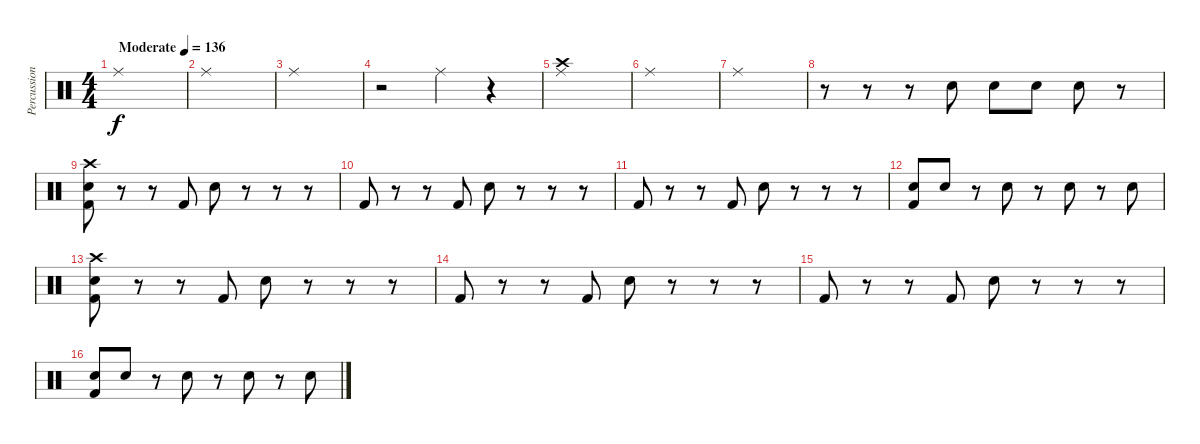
\track ("Percussion" "Percussion") {instrument percussion}
\staff {score}
\articulation defaults
\ts (4 4)
\tempo (136 "Moderate")
\clef neutral
\ks c "Ride (middle)".1{dy f}
|
"Ride (middle)".1 |
"Ride (middle)".1 |
r.2 "Ride (middle)".4 r.4 |
("Ride (middle)" "Crash high (hit)").1 |
"Ride (middle)".1 |
"Ride (middle)".1 |
r.8 r.8 r.8 "Electric Snare (hit)".8 "Electric Snare (hit)".8 "Electric Snare (hit)".8 "Electric Snare (hit)".8 r.8 |
("Crash high (hit)" "Electric Snare (hit)" "Kick (hit) 2").8 r.8 r.8 "Kick (hit) 2".8 "Electric Snare (hit)".8 r.8 r.8 r.8 |
"Kick (hit) 2".8 r.8 r.8 "Kick (hit) 2".8 "Electric Snare (hit)".8 r.8 r.8 r.8 |
"Kick (hit) 2".8 r.8 r.8 "Kick (hit) 2".8 "Electric Snare (hit)".8 r.8 r.8 r.8 |
("Electric Snare (hit)" "Kick (hit) 2").8 "Electric Snare (hit)".8 r.8 "Electric Snare (hit)".8 r.8 "Electric Snare (hit)".8 r.8 "Electric Snare (hit)".8 |
("Crash high (hit)" "Electric Snare (hit)" "Kick (hit) 2").8 r.8 r.8 "Kick (hit) 2".8 "Electric Snare (hit)".8 r.8 r.8 r.8 |
"Kick (hit) 2".8 r.8 r.8 "Kick (hit) 2".8 "Electric Snare (hit)".8 r.8 r.8 r.8 |
"Kick (hit) 2".8 r.8 r.8 "Kick (hit) 2".8 "Electric Snare (hit)".8 r.8 r.8 r.8 |
("Electric Snare (hit)" "Kick (hit) 2").8 "Electric Snare (hit)".8 r.8 "Electric Snare (hit)".8 r.8 "Electric Snare (hit)".8 r.8 "Electric Snare (hit)".8
